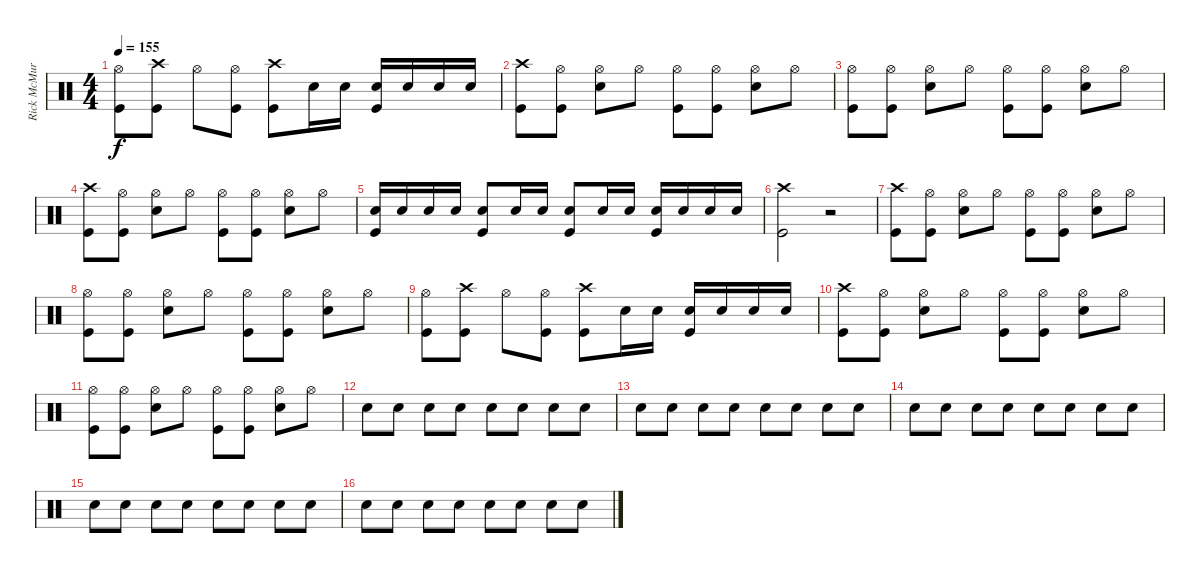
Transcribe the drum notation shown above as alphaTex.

\track ("Rick McMurray" "Rick McMur") {instrument percussion}
\staff {score}
\articulation defaults
\ts (4 4)
\tempo 155
\clef neutral
\ks c
("Hi-Hat (open)" "Kick (hit)").8{dy f} ("Crash high (hit)" "Kick (hit)").8 "Hi-Hat (open)".8 ("Hi-Hat (open)" "Kick (hit)").8 ("Crash high (hit)" "Kick (hit)").8 "Snare (hit) 2".16 "Snare (hit) 2".16 ("Snare (hit) 2" "Kick (hit)").16 "Snare (hit) 2".16 "Snare (hit) 2".16 "Snare (hit) 2".16 |
("Crash high (hit)" "Kick (hit)").8 ("Hi-Hat (open)" "Kick (hit)").8 ("Hi-Hat (open)" "Snare (hit) 2").8 "Hi-Hat (open)".8 ("Hi-Hat (open)" "Kick (hit)").8 ("Hi-Hat (open)" "Kick (hit)").8 ("Hi-Hat (open)" "Snare (hit) 2").8 "Hi-Hat (open)".8 |
("Hi-Hat (open)" "Kick (hit)").8 ("Hi-Hat (open)" "Kick (hit)").8 ("Hi-Hat (open)" "Snare (hit) 2").8 "Hi-Hat (open)".8 ("Hi-Hat (open)" "Kick (hit)").8 ("Hi-Hat (open)" "Kick (hit)").8 ("Hi-Hat (open)" "Snare (hit) 2").8 "Hi-Hat (open)".8 |
("Crash high (hit)" "Kick (hit)").8 ("Hi-Hat (open)" "Kick (hit)").8 ("Hi-Hat (open)" "Snare (hit) 2").8 "Hi-Hat (open)".8 ("Hi-Hat (open)" "Kick (hit)").8 ("Hi-Hat (open)" "Kick (hit)").8 ("Hi-Hat (open)" "Snare (hit) 2").8 "Hi-Hat (open)".8 |
("Snare (hit) 2" "Kick (hit)").16 "Snare (hit) 2".16 "Snare (hit) 2".16 "Snare (hit) 2".16 ("Snare (hit) 2" "Kick (hit)").8 "Snare (hit) 2".16 "Snare (hit) 2".16 ("Snare (hit) 2" "Kick (hit)").8 "Snare (hit) 2".16 "Snare (hit) 2".16 ("Snare (hit) 2" "Kick (hit)").16 "Snare (hit) 2".16 "Snare (hit) 2".16 "Snare (hit) 2".16 |
("Crash high (hit)" "Kick (hit)").2 r.2 |
("Crash high (hit)" "Kick (hit)").8 ("Hi-Hat (open)" "Kick (hit)").8 ("Hi-Hat (open)" "Snare (hit) 2").8 "Hi-Hat (open)".8 ("Hi-Hat (open)" "Kick (hit)").8 ("Hi-Hat (open)" "Kick (hit)").8 ("Hi-Hat (open)" "Snare (hit) 2").8 "Hi-Hat (open)".8 |
("Hi-Hat (open)" "Kick (hit)").8 ("Hi-Hat (open)" "Kick (hit)").8 ("Hi-Hat (open)" "Snare (hit) 2").8 "Hi-Hat (open)".8 ("Hi-Hat (open)" "Kick (hit)").8 ("Hi-Hat (open)" "Kick (hit)").8 ("Hi-Hat (open)" "Snare (hit) 2").8 "Hi-Hat (open)".8 |
("Hi-Hat (open)" "Kick (hit)").8 ("Crash high (hit)" "Kick (hit)").8 "Hi-Hat (open)".8 ("Hi-Hat (open)" "Kick (hit)").8 ("Crash high (hit)" "Kick (hit)").8 "Snare (hit) 2".16 "Snare (hit) 2".16 ("Snare (hit) 2" "Kick (hit)").16 "Snare (hit) 2".16 "Snare (hit) 2".16 "Snare (hit) 2".16 |
("Crash high (hit)" "Kick (hit)").8 ("Hi-Hat (open)" "Kick (hit)").8 ("Hi-Hat (open)" "Snare (hit) 2").8 "Hi-Hat (open)".8 ("Hi-Hat (open)" "Kick (hit)").8 ("Hi-Hat (open)" "Kick (hit)").8 ("Hi-Hat (open)" "Snare (hit) 2").8 "Hi-Hat (open)".8 |
("Hi-Hat (open)" "Kick (hit)").8 ("Hi-Hat (open)" "Kick (hit)").8 ("Hi-Hat (open)" "Snare (hit) 2").8 "Hi-Hat (open)".8 ("Hi-Hat (open)" "Kick (hit)").8 ("Hi-Hat (open)" "Kick (hit)").8 ("Hi-Hat (open)" "Snare (hit) 2").8 "Hi-Hat (open)".8 |
"Snare (hit) 2".8{volume 13} "Snare (hit) 2".8 "Snare (hit) 2".8 "Snare (hit) 2".8 "Snare (hit) 2".8 "Snare (hit) 2".8 "Snare (hit) 2".8 "Snare (hit) 2".8 |
"Snare (hit) 2".8 "Snare (hit) 2".8 "Snare (hit) 2".8 "Snare (hit) 2".8 "Snare (hit) 2".8 "Snare (hit) 2".8 "Snare (hit) 2".8 "Snare (hit) 2".8 |
"Snare (hit) 2".8 "Snare (hit) 2".8 "Snare (hit) 2".8 "Snare (hit) 2".8 "Snare (hit) 2".8 "Snare (hit) 2".8 "Snare (hit) 2".8 "Snare (hit) 2".8 |
"Snare (hit) 2".8 "Snare (hit) 2".8 "Snare (hit) 2".8 "Snare (hit) 2".8 "Snare (hit) 2".8 "Snare (hit) 2".8 "Snare (hit) 2".8 "Snare (hit) 2".8 |
"Snare (hit) 2".8 "Snare (hit) 2".8 "Snare (hit) 2".8 "Snare (hit) 2".8 "Snare (hit) 2".8 "Snare (hit) 2".8 "Snare (hit) 2".8 "Snare (hit) 2".8
